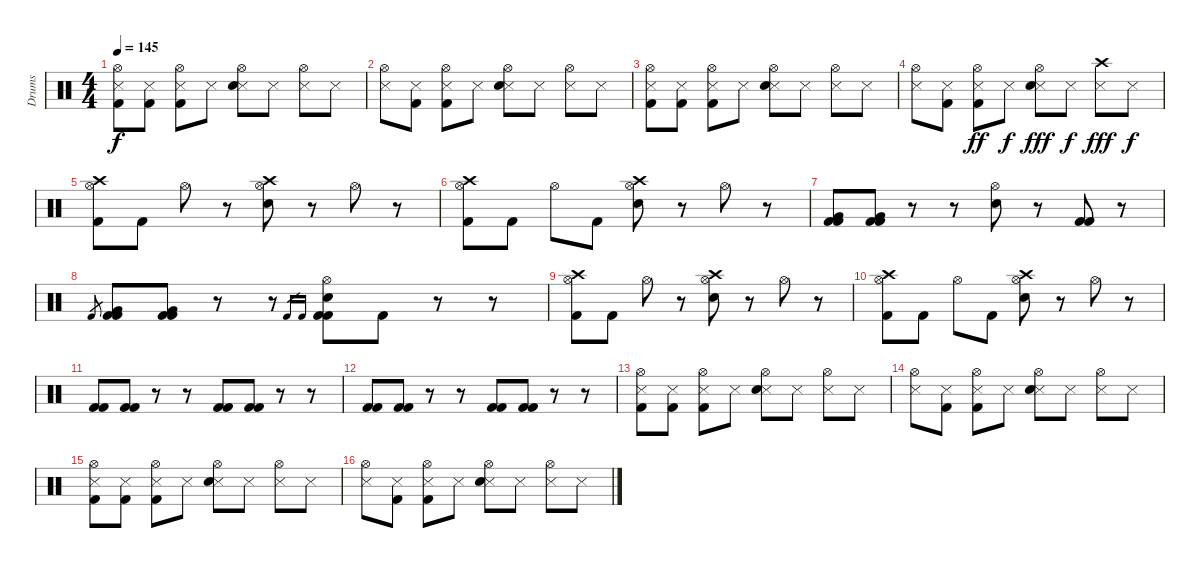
\track ("Drums" "Drums") {instrument percussion}
\staff {score}
\articulation defaults
\ts (4 4)
\tempo 145
\clef neutral
\ks c
("Hi-Hat (open)" "Snare (side stick) 3" "Kick (hit) 2").8{dy f} ("Snare (side stick) 3" "Kick (hit) 2").8 ("Hi-Hat (open)" "Snare (side stick) 3" "Kick (hit) 2").8 "Snare (side stick) 3".8 ("Hi-Hat (open)" "Snare (side stick) 3" "Snare (hit) 2").8 "Snare (side stick) 3".8 ("Hi-Hat (open)" "Snare (side stick) 3").8 "Snare (side stick) 3".8 |
("Hi-Hat (open)" "Snare (side stick) 3").8 ("Snare (side stick) 3" "Kick (hit) 2").8 ("Hi-Hat (open)" "Snare (side stick) 3" "Kick (hit) 2").8 "Snare (side stick) 3".8 ("Hi-Hat (open)" "Snare (side stick) 3" "Snare (hit) 2").8 "Snare (side stick) 3".8 ("Hi-Hat (open)" "Snare (side stick) 3").8 "Snare (side stick) 3".8 |
("Hi-Hat (open)" "Snare (side stick) 3" "Kick (hit) 2").8 ("Snare (side stick) 3" "Kick (hit) 2").8 ("Hi-Hat (open)" "Snare (side stick) 3" "Kick (hit) 2").8 "Snare (side stick) 3".8 ("Hi-Hat (open)" "Snare (side stick) 3" "Snare (hit) 2").8 "Snare (side stick) 3".8 ("Hi-Hat (open)" "Snare (side stick) 3").8 "Snare (side stick) 3".8 |
("Hi-Hat (open)" "Snare (side stick) 3").8 ("Snare (side stick) 3" "Kick (hit) 2").8 ("Hi-Hat (open)" "Snare (side stick) 3" "Kick (hit) 2").8{dy ff} "Snare (side stick) 3".8{dy f} ("Hi-Hat (open)" "Snare (side stick) 3" "Snare (hit) 2").8{dy fff} "Snare (side stick) 3".8{dy f} ("Crash high (hit)" "Snare (side stick) 3").8{dy fff} "Snare (side stick) 3".8{dy f} |
("Hi-Hat (open)" "Crash high (hit)" "Kick (hit) 2").8 "Kick (hit) 2".8 "Hi-Hat (open)".8 r.8 ("Hi-Hat (open)" "Crash high (hit)" "Electric Snare (hit)").8 r.8 "Hi-Hat (open)".8 r.8 |
("Hi-Hat (open)" "Crash high (hit)" "Kick (hit) 2").8 "Kick (hit) 2".8 "Hi-Hat (open)".8 "Kick (hit) 2".8 ("Hi-Hat (open)" "Crash high (hit)" "Electric Snare (hit)").8 r.8 "Hi-Hat (open)".8 r.8 |
("Very Low Tom (hit)" "Kick (hit) 2" "Kick (hit) 2").8 ("Very Low Tom (hit)" "Kick (hit) 2" "Kick (hit) 2").8 r.8 r.8 ("Hi-Hat (open)" "Electric Snare (hit)").8 r.8 ("Kick (hit) 2" "Kick (hit) 2").8 r.8 |
"Kick (hit) 2".8{gr} ("Very Low Tom (hit)" "Kick (hit) 2" "Kick (hit) 2").8 ("Very Low Tom (hit)" "Kick (hit) 2" "Kick (hit) 2").8 r.8 r.8 "Kick (hit) 2".16{gr} "Kick (hit) 2".16{gr} ("Hi-Hat (open)" "Electric Snare (hit)" "Kick (hit) 2" "Kick (hit) 2").8 "Kick (hit) 2".8 r.8 r.8 |
("Hi-Hat (open)" "Crash high (hit)" "Kick (hit) 2").8 "Kick (hit) 2".8 "Hi-Hat (open)".8 r.8 ("Hi-Hat (open)" "Crash high (hit)" "Electric Snare (hit)").8 r.8 "Hi-Hat (open)".8 r.8 |
("Hi-Hat (open)" "Crash high (hit)" "Kick (hit) 2").8 "Kick (hit) 2".8 "Hi-Hat (open)".8 "Kick (hit) 2".8 ("Hi-Hat (open)" "Crash high (hit)" "Electric Snare (hit)").8 r.8 "Hi-Hat (open)".8 r.8 |
("Kick (hit) 2" "Kick (hit) 2").8 ("Kick (hit) 2" "Kick (hit) 2").8 r.8 r.8 ("Kick (hit) 2" "Kick (hit) 2").8 ("Kick (hit) 2" "Kick (hit) 2").8 r.8 r.8 |
("Kick (hit) 2" "Kick (hit) 2").8 ("Kick (hit) 2" "Kick (hit) 2").8 r.8 r.8 ("Kick (hit) 2" "Kick (hit) 2").8 ("Kick (hit) 2" "Kick (hit) 2").8 r.8 r.8 |
("Hi-Hat (open)" "Snare (side stick) 3" "Kick (hit) 2").8 ("Snare (side stick) 3" "Kick (hit) 2").8 ("Hi-Hat (open)" "Snare (side stick) 3" "Kick (hit) 2").8 "Snare (side stick) 3".8 ("Hi-Hat (open)" "Snare (side stick) 3" "Snare (hit) 2").8 "Snare (side stick) 3".8 ("Hi-Hat (open)" "Snare (side stick) 3").8 "Snare (side stick) 3".8 |
("Hi-Hat (open)" "Snare (side stick) 3").8 ("Snare (side stick) 3" "Kick (hit) 2").8 ("Hi-Hat (open)" "Snare (side stick) 3" "Kick (hit) 2").8 "Snare (side stick) 3".8 ("Hi-Hat (open)" "Snare (side stick) 3" "Snare (hit) 2").8 "Snare (side stick) 3".8 ("Hi-Hat (open)" "Snare (side stick) 3").8 "Snare (side stick) 3".8 |
("Hi-Hat (open)" "Snare (side stick) 3" "Kick (hit) 2").8 ("Snare (side stick) 3" "Kick (hit) 2").8 ("Hi-Hat (open)" "Snare (side stick) 3" "Kick (hit) 2").8 "Snare (side stick) 3".8 ("Hi-Hat (open)" "Snare (side stick) 3" "Snare (hit) 2").8 "Snare (side stick) 3".8 ("Hi-Hat (open)" "Snare (side stick) 3").8 "Snare (side stick) 3".8 |
("Hi-Hat (open)" "Snare (side stick) 3").8 ("Snare (side stick) 3" "Kick (hit) 2").8 ("Hi-Hat (open)" "Snare (side stick) 3" "Kick (hit) 2").8 "Snare (side stick) 3".8 ("Hi-Hat (open)" "Snare (side stick) 3" "Snare (hit) 2").8 "Snare (side stick) 3".8 ("Hi-Hat (open)" "Snare (side stick) 3").8 "Snare (side stick) 3".8
